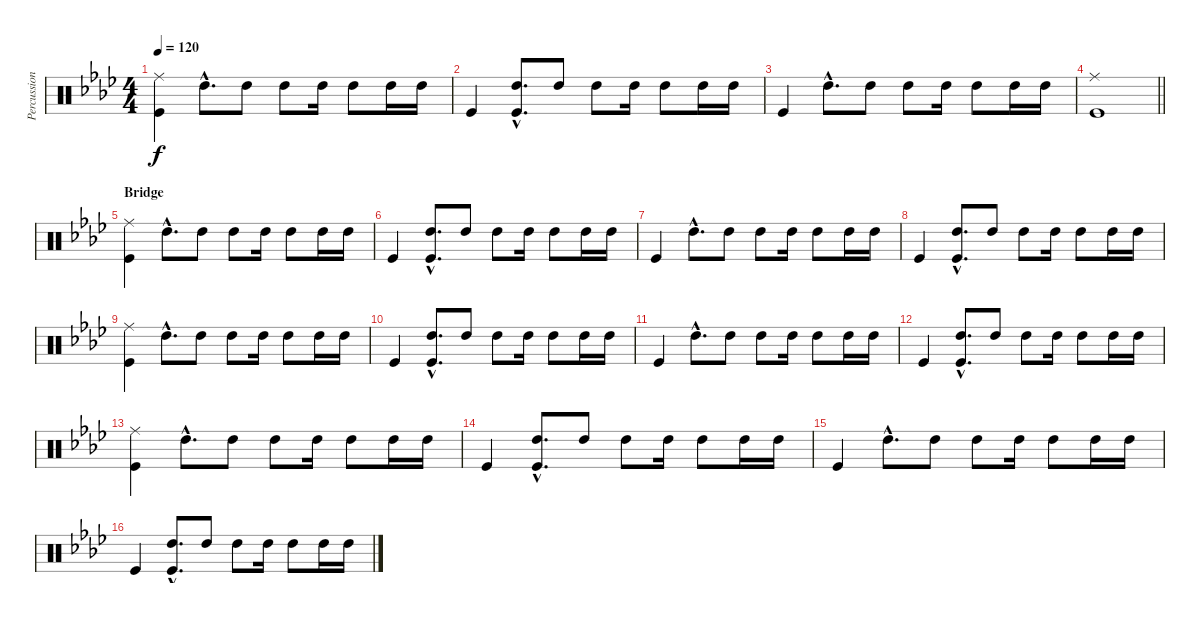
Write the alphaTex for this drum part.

\track ("Percussion" "Percussion") {instrument percussion}
\staff {score}
\articulation defaults
\ts (4 4)
\tempo 120
\clef neutral
\ks fminor
("Ride (middle)" "Kick (hit)").4{dy f} "High Tom (hit)"{hac}.8{d} "High Tom (hit)".8 "High Tom (hit)".8 "High Tom (hit)".16 "High Tom (hit)".8 "High Tom (hit)".16 "High Tom (hit)".16 |
"Kick (hit)".4 ("High Tom (hit)"{hac} "Kick (hit)"{hac}).8{d} "High Tom (hit)".8 "High Tom (hit)".8 "High Tom (hit)".16 "High Tom (hit)".8 "High Tom (hit)".16 "High Tom (hit)".16 |
"Kick (hit)".4 "High Tom (hit)"{hac}.8{d} "High Tom (hit)".8 "High Tom (hit)".8 "High Tom (hit)".16 "High Tom (hit)".8 "High Tom (hit)".16 "High Tom (hit)".16 |
\barLineRight lightlight
("Ride (middle)" "Kick (hit)").1 |
\section ("" "Bridge")
("Ride (middle)" "Kick (hit)").4 "High Tom (hit)"{hac}.8{d} "High Tom (hit)".8 "High Tom (hit)".8 "High Tom (hit)".16 "High Tom (hit)".8 "High Tom (hit)".16 "High Tom (hit)".16 |
"Kick (hit)".4 ("High Tom (hit)"{hac} "Kick (hit)"{hac}).8{d} "High Tom (hit)".8 "High Tom (hit)".8 "High Tom (hit)".16 "High Tom (hit)".8 "High Tom (hit)".16 "High Tom (hit)".16 |
"Kick (hit)".4 "High Tom (hit)"{hac}.8{d} "High Tom (hit)".8 "High Tom (hit)".8 "High Tom (hit)".16 "High Tom (hit)".8 "High Tom (hit)".16 "High Tom (hit)".16 |
"Kick (hit)".4 ("High Tom (hit)"{hac} "Kick (hit)"{hac}).8{d} "High Tom (hit)".8 "High Tom (hit)".8 "High Tom (hit)".16 "High Tom (hit)".8 "High Tom (hit)".16 "High Tom (hit)".16 |
("Ride (middle)" "Kick (hit)").4 "High Tom (hit)"{hac}.8{d} "High Tom (hit)".8 "High Tom (hit)".8 "High Tom (hit)".16 "High Tom (hit)".8 "High Tom (hit)".16 "High Tom (hit)".16 |
"Kick (hit)".4 ("High Tom (hit)"{hac} "Kick (hit)"{hac}).8{d} "High Tom (hit)".8 "High Tom (hit)".8 "High Tom (hit)".16 "High Tom (hit)".8 "High Tom (hit)".16 "High Tom (hit)".16 |
"Kick (hit)".4 "High Tom (hit)"{hac}.8{d} "High Tom (hit)".8 "High Tom (hit)".8 "High Tom (hit)".16 "High Tom (hit)".8 "High Tom (hit)".16 "High Tom (hit)".16 |
"Kick (hit)".4 ("High Tom (hit)"{hac} "Kick (hit)"{hac}).8{d} "High Tom (hit)".8 "High Tom (hit)".8 "High Tom (hit)".16 "High Tom (hit)".8 "High Tom (hit)".16 "High Tom (hit)".16 |
("Ride (middle)" "Kick (hit)").4 "High Tom (hit)"{hac}.8{d} "High Tom (hit)".8 "High Tom (hit)".8 "High Tom (hit)".16 "High Tom (hit)".8 "High Tom (hit)".16 "High Tom (hit)".16 |
"Kick (hit)".4 ("High Tom (hit)"{hac} "Kick (hit)"{hac}).8{d} "High Tom (hit)".8 "High Tom (hit)".8 "High Tom (hit)".16 "High Tom (hit)".8 "High Tom (hit)".16 "High Tom (hit)".16 |
"Kick (hit)".4 "High Tom (hit)"{hac}.8{d} "High Tom (hit)".8 "High Tom (hit)".8 "High Tom (hit)".16 "High Tom (hit)".8 "High Tom (hit)".16 "High Tom (hit)".16 |
"Kick (hit)".4 ("High Tom (hit)"{hac} "Kick (hit)"{hac}).8{d} "High Tom (hit)".8 "High Tom (hit)".8 "High Tom (hit)".16 "High Tom (hit)".8 "High Tom (hit)".16 "High Tom (hit)".16
